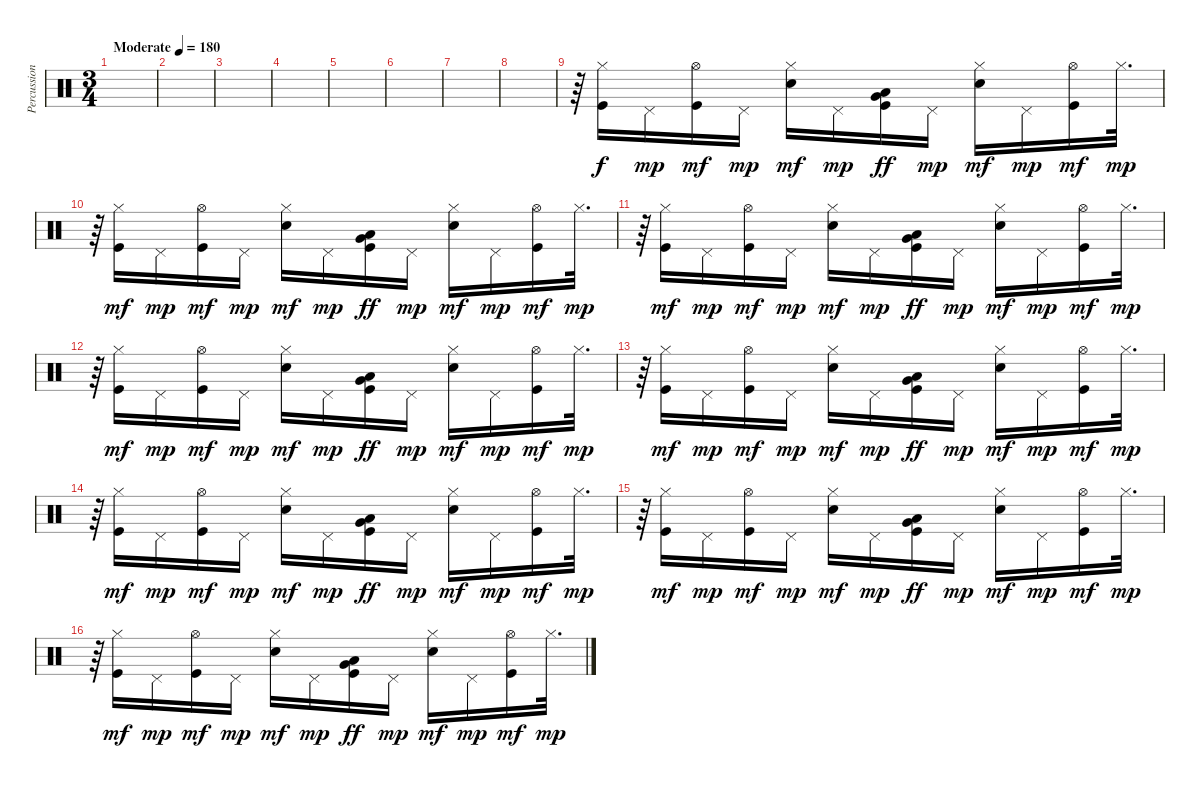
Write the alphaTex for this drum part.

\track ("Percussion" "Percussion") {instrument percussion}
\staff {score}
\articulation defaults
\ts (3 4)
\tempo (180 "Moderate")
\clef neutral
\ks c
|
|
|
|
|
|
|
|
r.64 ("Hi-Hat (closed)" "Kick (hit)").16 "Pedal Hi-Hat (hit)".16{dy mp} ("Hi-Hat (open)" "Kick (hit)").16{dy mf} "Pedal Hi-Hat (hit)".16{dy mp} ("Hi-Hat (closed)" "Snare (hit) 2").16{dy mf} "Pedal Hi-Hat (hit)".16{dy mp} ("Low Tom (hit)" "Very Low Tom (hit)" "Kick (hit)").16{dy ff} "Pedal Hi-Hat (hit)".16{dy mp} ("Hi-Hat (closed)" "Snare (hit) 2").16{dy mf} "Pedal Hi-Hat (hit)".16{dy mp} ("Hi-Hat (open)" "Kick (hit)").16{dy mf} "Hi-Hat (closed)".32{d dy mp} |
r.64 ("Hi-Hat (closed)" "Kick (hit)").16{dy mf} "Pedal Hi-Hat (hit)".16{dy mp} ("Hi-Hat (open)" "Kick (hit)").16{dy mf} "Pedal Hi-Hat (hit)".16{dy mp} ("Hi-Hat (closed)" "Snare (hit) 2").16{dy mf} "Pedal Hi-Hat (hit)".16{dy mp} ("Low Tom (hit)" "Very Low Tom (hit)" "Kick (hit)").16{dy ff} "Pedal Hi-Hat (hit)".16{dy mp} ("Hi-Hat (closed)" "Snare (hit) 2").16{dy mf} "Pedal Hi-Hat (hit)".16{dy mp} ("Hi-Hat (open)" "Kick (hit)").16{dy mf} "Hi-Hat (closed)".32{d dy mp} |
r.64 ("Hi-Hat (closed)" "Kick (hit)").16{dy mf} "Pedal Hi-Hat (hit)".16{dy mp} ("Hi-Hat (open)" "Kick (hit)").16{dy mf} "Pedal Hi-Hat (hit)".16{dy mp} ("Hi-Hat (closed)" "Snare (hit) 2").16{dy mf} "Pedal Hi-Hat (hit)".16{dy mp} ("Low Tom (hit)" "Very Low Tom (hit)" "Kick (hit)").16{dy ff} "Pedal Hi-Hat (hit)".16{dy mp} ("Hi-Hat (closed)" "Snare (hit) 2").16{dy mf} "Pedal Hi-Hat (hit)".16{dy mp} ("Hi-Hat (open)" "Kick (hit)").16{dy mf} "Hi-Hat (closed)".32{d dy mp} |
r.64 ("Hi-Hat (closed)" "Kick (hit)").16{dy mf} "Pedal Hi-Hat (hit)".16{dy mp} ("Hi-Hat (open)" "Kick (hit)").16{dy mf} "Pedal Hi-Hat (hit)".16{dy mp} ("Hi-Hat (closed)" "Snare (hit) 2").16{dy mf} "Pedal Hi-Hat (hit)".16{dy mp} ("Low Tom (hit)" "Very Low Tom (hit)" "Kick (hit)").16{dy ff} "Pedal Hi-Hat (hit)".16{dy mp} ("Hi-Hat (closed)" "Snare (hit) 2").16{dy mf} "Pedal Hi-Hat (hit)".16{dy mp} ("Hi-Hat (open)" "Kick (hit)").16{dy mf} "Hi-Hat (closed)".32{d dy mp} |
r.64 ("Hi-Hat (closed)" "Kick (hit)").16{dy mf} "Pedal Hi-Hat (hit)".16{dy mp} ("Hi-Hat (open)" "Kick (hit)").16{dy mf} "Pedal Hi-Hat (hit)".16{dy mp} ("Hi-Hat (closed)" "Snare (hit) 2").16{dy mf} "Pedal Hi-Hat (hit)".16{dy mp} ("Low Tom (hit)" "Very Low Tom (hit)" "Kick (hit)").16{dy ff} "Pedal Hi-Hat (hit)".16{dy mp} ("Hi-Hat (closed)" "Snare (hit) 2").16{dy mf} "Pedal Hi-Hat (hit)".16{dy mp} ("Hi-Hat (open)" "Kick (hit)").16{dy mf} "Hi-Hat (closed)".32{d dy mp} |
r.64 ("Hi-Hat (closed)" "Kick (hit)").16{dy mf} "Pedal Hi-Hat (hit)".16{dy mp} ("Hi-Hat (open)" "Kick (hit)").16{dy mf} "Pedal Hi-Hat (hit)".16{dy mp} ("Hi-Hat (closed)" "Snare (hit) 2").16{dy mf} "Pedal Hi-Hat (hit)".16{dy mp} ("Low Tom (hit)" "Very Low Tom (hit)" "Kick (hit)").16{dy ff} "Pedal Hi-Hat (hit)".16{dy mp} ("Hi-Hat (closed)" "Snare (hit) 2").16{dy mf} "Pedal Hi-Hat (hit)".16{dy mp} ("Hi-Hat (open)" "Kick (hit)").16{dy mf} "Hi-Hat (closed)".32{d dy mp} |
r.64 ("Hi-Hat (closed)" "Kick (hit)").16{dy mf} "Pedal Hi-Hat (hit)".16{dy mp} ("Hi-Hat (open)" "Kick (hit)").16{dy mf} "Pedal Hi-Hat (hit)".16{dy mp} ("Hi-Hat (closed)" "Snare (hit) 2").16{dy mf} "Pedal Hi-Hat (hit)".16{dy mp} ("Low Tom (hit)" "Very Low Tom (hit)" "Kick (hit)").16{dy ff} "Pedal Hi-Hat (hit)".16{dy mp} ("Hi-Hat (closed)" "Snare (hit) 2").16{dy mf} "Pedal Hi-Hat (hit)".16{dy mp} ("Hi-Hat (open)" "Kick (hit)").16{dy mf} "Hi-Hat (closed)".32{d dy mp} |
r.64 ("Hi-Hat (closed)" "Kick (hit)").16{dy mf} "Pedal Hi-Hat (hit)".16{dy mp} ("Hi-Hat (open)" "Kick (hit)").16{dy mf} "Pedal Hi-Hat (hit)".16{dy mp} ("Hi-Hat (closed)" "Snare (hit) 2").16{dy mf} "Pedal Hi-Hat (hit)".16{dy mp} ("Low Tom (hit)" "Very Low Tom (hit)" "Kick (hit)").16{dy ff} "Pedal Hi-Hat (hit)".16{dy mp} ("Hi-Hat (closed)" "Snare (hit) 2").16{dy mf} "Pedal Hi-Hat (hit)".16{dy mp} ("Hi-Hat (open)" "Kick (hit)").16{dy mf} "Hi-Hat (closed)".32{d dy mp}
